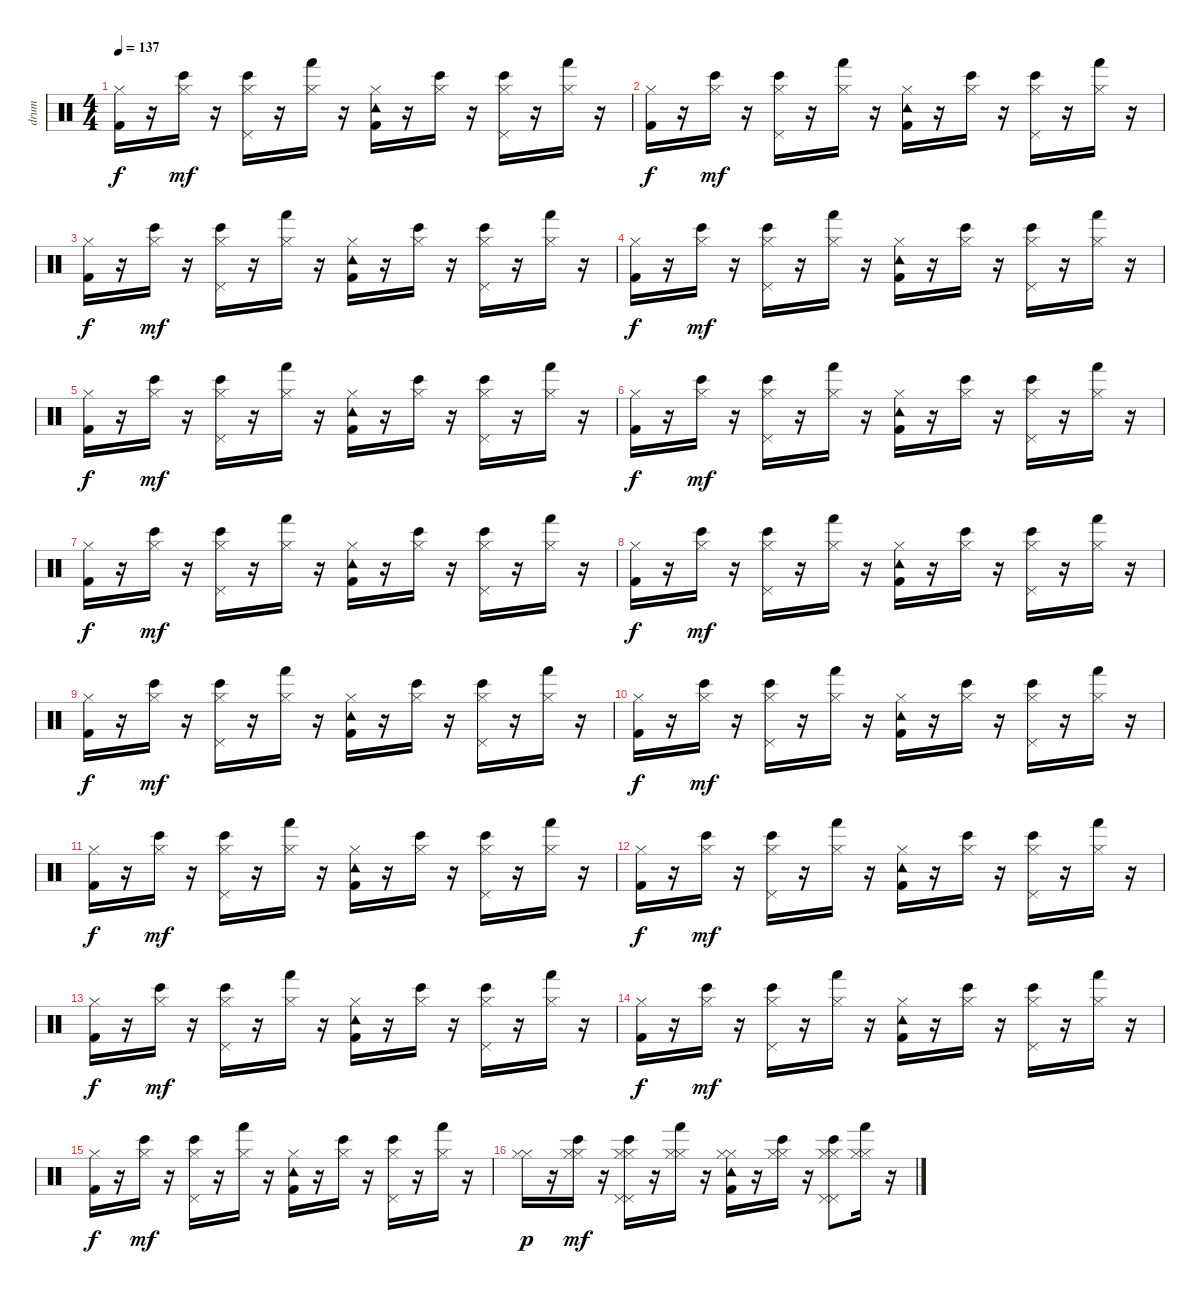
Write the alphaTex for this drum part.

\track ("drum" "drum") {instrument percussion}
\staff {score}
\articulation defaults
\ts (4 4)
\tempo 137
\clef neutral
\ks c
("Hi-Hat (closed)" "Kick (hit) 2").16{dy f} r.16 ("Hi-Hat (closed)" "Bongo High (hit)").16{dy mf} r.16 ("Bongo High (hit)" "Hi-Hat (closed)" "Pedal Hi-Hat (hit)").16 r.16 ("Hand (hit)" "Hi-Hat (closed)").16 r.16 ("Kick (hit) 2" "Tambourine (hit)" "Hi-Hat (closed)").16 r.16 ("Hi-Hat (closed)" "Bongo High (hit)").16 r.16 ("Bongo High (hit)" "Hi-Hat (closed)" "Pedal Hi-Hat (hit)").16 r.16 ("Hand (hit)" "Hi-Hat (closed)").16 r.16 |
("Kick (hit) 2" "Hi-Hat (closed)").16{dy f} r.16 ("Hi-Hat (closed)" "Bongo High (hit)").16{dy mf} r.16 ("Hi-Hat (closed)" "Bongo High (hit)" "Pedal Hi-Hat (hit)").16 r.16 ("Hand (hit)" "Hi-Hat (closed)").16 r.16 ("Tambourine (hit)" "Hi-Hat (closed)" "Kick (hit) 2").16 r.16 ("Hi-Hat (closed)" "Bongo High (hit)").16 r.16 ("Bongo High (hit)" "Hi-Hat (closed)" "Pedal Hi-Hat (hit)").16 r.16 ("Hi-Hat (closed)" "Hand (hit)").16 r.16 |
("Kick (hit) 2" "Hi-Hat (closed)").16{dy f} r.16 ("Bongo High (hit)" "Hi-Hat (closed)").16{dy mf} r.16 ("Bongo High (hit)" "Hi-Hat (closed)" "Pedal Hi-Hat (hit)").16 r.16 ("Hand (hit)" "Hi-Hat (closed)").16 r.16 ("Tambourine (hit)" "Kick (hit) 2" "Hi-Hat (closed)").16 r.16 ("Hi-Hat (closed)" "Bongo High (hit)").16 r.16 ("Bongo High (hit)" "Hi-Hat (closed)" "Pedal Hi-Hat (hit)").16 r.16 ("Hi-Hat (closed)" "Hand (hit)").16 r.16 |
("Kick (hit) 2" "Hi-Hat (closed)").16{dy f} r.16 ("Bongo High (hit)" "Hi-Hat (closed)").16{dy mf} r.16 ("Hi-Hat (closed)" "Bongo High (hit)" "Pedal Hi-Hat (hit)").16 r.16 ("Hand (hit)" "Hi-Hat (closed)").16 r.16 ("Tambourine (hit)" "Kick (hit) 2" "Hi-Hat (closed)").16 r.16 ("Hi-Hat (closed)" "Bongo High (hit)").16 r.16 ("Bongo High (hit)" "Hi-Hat (closed)" "Pedal Hi-Hat (hit)").16 r.16 ("Hand (hit)" "Hi-Hat (closed)").16 r.16 |
("Kick (hit) 2" "Hi-Hat (closed)").16{dy f} r.16 ("Bongo High (hit)" "Hi-Hat (closed)").16{dy mf} r.16 ("Hi-Hat (closed)" "Bongo High (hit)" "Pedal Hi-Hat (hit)").16 r.16 ("Hi-Hat (closed)" "Hand (hit)").16 r.16 ("Tambourine (hit)" "Kick (hit) 2" "Hi-Hat (closed)").16 r.16 ("Hi-Hat (closed)" "Bongo High (hit)").16 r.16 ("Hi-Hat (closed)" "Bongo High (hit)" "Pedal Hi-Hat (hit)").16 r.16 ("Hi-Hat (closed)" "Hand (hit)").16 r.16 |
("Kick (hit) 2" "Hi-Hat (closed)").16{dy f} r.16 ("Bongo High (hit)" "Hi-Hat (closed)").16{dy mf} r.16 ("Bongo High (hit)" "Hi-Hat (closed)" "Pedal Hi-Hat (hit)").16 r.16 ("Hi-Hat (closed)" "Hand (hit)").16 r.16 ("Tambourine (hit)" "Kick (hit) 2" "Hi-Hat (closed)").16 r.16 ("Hi-Hat (closed)" "Bongo High (hit)").16 r.16 ("Bongo High (hit)" "Hi-Hat (closed)" "Pedal Hi-Hat (hit)").16 r.16 ("Hand (hit)" "Hi-Hat (closed)").16 r.16 |
("Hi-Hat (closed)" "Kick (hit) 2").16{dy f} r.16 ("Bongo High (hit)" "Hi-Hat (closed)").16{dy mf} r.16 ("Bongo High (hit)" "Hi-Hat (closed)" "Pedal Hi-Hat (hit)").16 r.16 ("Hand (hit)" "Hi-Hat (closed)").16 r.16 ("Hi-Hat (closed)" "Tambourine (hit)" "Kick (hit) 2").16 r.16 ("Hi-Hat (closed)" "Bongo High (hit)").16 r.16 ("Hi-Hat (closed)" "Bongo High (hit)" "Pedal Hi-Hat (hit)").16 r.16 ("Hi-Hat (closed)" "Hand (hit)").16 r.16 |
("Kick (hit) 2" "Hi-Hat (closed)").16{dy f} r.16 ("Bongo High (hit)" "Hi-Hat (closed)").16{dy mf} r.16 ("Hi-Hat (closed)" "Bongo High (hit)" "Pedal Hi-Hat (hit)").16 r.16 ("Hand (hit)" "Hi-Hat (closed)").16 r.16 ("Tambourine (hit)" "Kick (hit) 2" "Hi-Hat (closed)").16 r.16 ("Bongo High (hit)" "Hi-Hat (closed)").16 r.16 ("Hi-Hat (closed)" "Bongo High (hit)" "Pedal Hi-Hat (hit)").16 r.16 ("Hi-Hat (closed)" "Hand (hit)").16 r.16 |
("Kick (hit) 2" "Hi-Hat (closed)").16{dy f} r.16 ("Bongo High (hit)" "Hi-Hat (closed)").16{dy mf} r.16 ("Bongo High (hit)" "Hi-Hat (closed)" "Pedal Hi-Hat (hit)").16 r.16 ("Hand (hit)" "Hi-Hat (closed)").16 r.16 ("Hi-Hat (closed)" "Tambourine (hit)" "Kick (hit) 2").16 r.16 ("Bongo High (hit)" "Hi-Hat (closed)").16 r.16 ("Hi-Hat (closed)" "Bongo High (hit)" "Pedal Hi-Hat (hit)").16 r.16 ("Hand (hit)" "Hi-Hat (closed)").16 r.16 |
("Hi-Hat (closed)" "Kick (hit) 2").16{dy f} r.16 ("Bongo High (hit)" "Hi-Hat (closed)").16{dy mf} r.16 ("Hi-Hat (closed)" "Bongo High (hit)" "Pedal Hi-Hat (hit)").16 r.16 ("Hi-Hat (closed)" "Hand (hit)").16 r.16 ("Tambourine (hit)" "Hi-Hat (closed)" "Kick (hit) 2").16 r.16 ("Hi-Hat (closed)" "Bongo High (hit)").16 r.16 ("Hi-Hat (closed)" "Bongo High (hit)" "Pedal Hi-Hat (hit)").16 r.16 ("Hand (hit)" "Hi-Hat (closed)").16 r.16 |
("Hi-Hat (closed)" "Kick (hit) 2").16{dy f} r.16 ("Bongo High (hit)" "Hi-Hat (closed)").16{dy mf} r.16 ("Bongo High (hit)" "Hi-Hat (closed)" "Pedal Hi-Hat (hit)").16 r.16 ("Hand (hit)" "Hi-Hat (closed)").16 r.16 ("Hi-Hat (closed)" "Kick (hit) 2" "Tambourine (hit)").16 r.16 ("Bongo High (hit)" "Hi-Hat (closed)").16 r.16 ("Hi-Hat (closed)" "Bongo High (hit)" "Pedal Hi-Hat (hit)").16 r.16 ("Hi-Hat (closed)" "Hand (hit)").16 r.16 |
("Kick (hit) 2" "Hi-Hat (closed)").16{dy f} r.16 ("Hi-Hat (closed)" "Bongo High (hit)").16{dy mf} r.16 ("Hi-Hat (closed)" "Bongo High (hit)" "Pedal Hi-Hat (hit)").16 r.16 ("Hand (hit)" "Hi-Hat (closed)").16 r.16 ("Tambourine (hit)" "Kick (hit) 2" "Hi-Hat (closed)").16 r.16 ("Hi-Hat (closed)" "Bongo High (hit)").16 r.16 ("Bongo High (hit)" "Hi-Hat (closed)" "Pedal Hi-Hat (hit)").16 r.16 ("Hand (hit)" "Hi-Hat (closed)").16 r.16 |
("Hi-Hat (closed)" "Kick (hit) 2").16{dy f} r.16 ("Hi-Hat (closed)" "Bongo High (hit)").16{dy mf} r.16 ("Bongo High (hit)" "Hi-Hat (closed)" "Pedal Hi-Hat (hit)").16 r.16 ("Hand (hit)" "Hi-Hat (closed)").16 r.16 ("Tambourine (hit)" "Hi-Hat (closed)" "Kick (hit) 2").16 r.16 ("Hi-Hat (closed)" "Bongo High (hit)").16 r.16 ("Hi-Hat (closed)" "Bongo High (hit)" "Pedal Hi-Hat (hit)").16 r.16 ("Hi-Hat (closed)" "Hand (hit)").16 r.16 |
("Kick (hit) 2" "Hi-Hat (closed)").16{dy f} r.16 ("Bongo High (hit)" "Hi-Hat (closed)").16{dy mf} r.16 ("Hi-Hat (closed)" "Bongo High (hit)" "Pedal Hi-Hat (hit)").16 r.16 ("Hi-Hat (closed)" "Hand (hit)").16 r.16 ("Tambourine (hit)" "Kick (hit) 2" "Hi-Hat (closed)").16 r.16 ("Hi-Hat (closed)" "Bongo High (hit)").16 r.16 ("Bongo High (hit)" "Hi-Hat (closed)" "Pedal Hi-Hat (hit)").16 r.16 ("Hand (hit)" "Hi-Hat (closed)").16 r.16 |
("Hi-Hat (closed)" "Kick (hit) 2").16{dy f} r.16 ("Hi-Hat (closed)" "Bongo High (hit)").16{dy mf} r.16 ("Bongo High (hit)" "Hi-Hat (closed)" "Pedal Hi-Hat (hit)").16 r.16 ("Hi-Hat (closed)" "Hand (hit)").16 r.16 ("Hi-Hat (closed)" "Tambourine (hit)" "Kick (hit) 2").16 r.16 ("Hi-Hat (closed)" "Bongo High (hit)").16 r.16 ("Bongo High (hit)" "Hi-Hat (closed)" "Pedal Hi-Hat (hit)").16 r.16 ("Hi-Hat (closed)" "Hand (hit)").16 r.16 |
("Hi-Hat (closed)" "Hi-Hat (closed)").16{dy p} r.16 ("Hi-Hat (closed)" "Hi-Hat (closed)" "Bongo High (hit)").16{dy mf} r.16 ("Hi-Hat (closed)" "Hi-Hat (closed)" "Bongo High (hit)" "Pedal Hi-Hat (hit)" "Pedal Hi-Hat (hit)").16 r.16 ("Hi-Hat (closed)" "Hi-Hat (closed)" "Hand (hit)").16 r.16 ("Tambourine (hit)" "Kick (hit) 2" "Hi-Hat (closed)" "Hi-Hat (closed)").16 r.16 ("Hi-Hat (closed)" "Hi-Hat (closed)" "Bongo High (hit)").16 r.16 ("Hi-Hat (closed)" "Bongo High (hit)" "Pedal Hi-Hat (hit)" "Hi-Hat (closed)" "Pedal Hi-Hat (hit)").8 ("Hi-Hat (closed)" "Hi-Hat (closed)" "Hand (hit)").16 r.16
